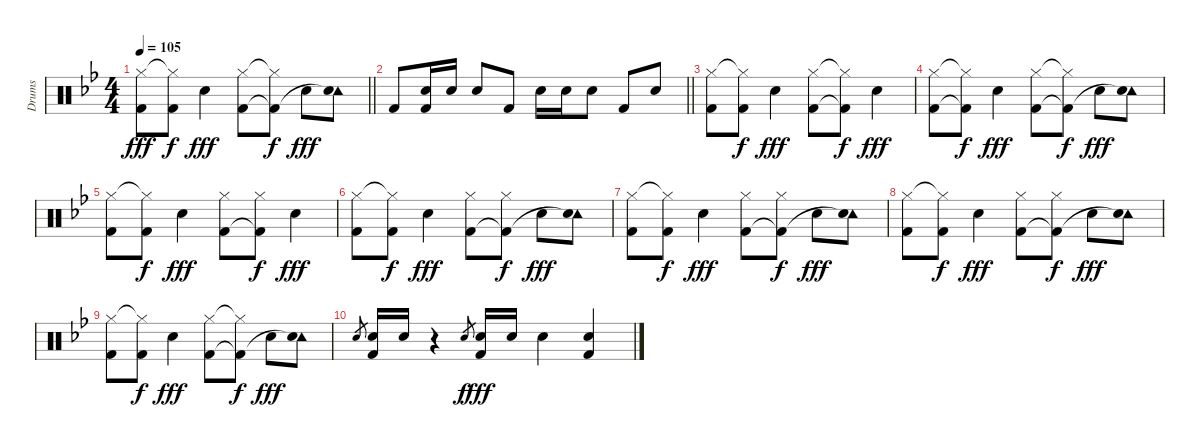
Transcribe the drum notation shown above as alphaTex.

\track ("Drums" "Drums") {instrument percussion}
\staff {score}
\articulation defaults
\ts (4 4)
\tempo 105
\clef neutral
\barLineRight lightlight
\ks bb
("Hi-Hat (closed)" "Kick (hit) 2").8{dy fff} ("Hi-Hat (closed)"{t} "Kick (hit) 2").8{dy f} "Snare (hit) 2".4{dy fff} ("Hi-Hat (closed)" "Kick (hit) 2").8 ("Hi-Hat (closed)"{t} "Kick (hit) 2"{t}).8{dy f} "Snare (hit) 2".8{dy fff} ("Tambourine (hit)" "Snare (hit)"{t}).8 |
\barLineRight lightlight "Kick (hit) 2".8
("Snare (hit) 2" "Kick (hit) 2").16 "Snare (hit) 2".16 "Snare (hit) 2".8 "Kick (hit) 2".8 "Snare (hit) 2".16 "Snare (hit) 2".16 "Snare (hit) 2".8 "Kick (hit) 2".8 "Snare (hit) 2".8 |
("Hi-Hat (closed)" "Kick (hit) 2").8 ("Hi-Hat (closed)"{t} "Kick (hit) 2").8{dy f} "Snare (hit) 2".4{dy fff} ("Hi-Hat (closed)" "Kick (hit) 2").8 ("Hi-Hat (closed)"{t} "Kick (hit) 2"{t}).8{dy f} "Snare (hit) 2".4{dy fff} |
("Hi-Hat (closed)" "Kick (hit) 2").8 ("Hi-Hat (closed)"{t} "Kick (hit) 2"{t}).8{dy f} "Snare (hit) 2".4{dy fff} ("Hi-Hat (closed)" "Kick (hit) 2").8 ("Hi-Hat (closed)"{t} "Kick (hit) 2"{t}).8{dy f} "Snare (hit) 2".8{dy fff} ("Tambourine (hit)" "Snare (hit)"{t}).8 |
("Hi-Hat (closed)" "Kick (hit) 2").8 ("Hi-Hat (closed)"{t} "Kick (hit) 2").8{dy f} "Snare (hit) 2".4{dy fff} ("Hi-Hat (closed)" "Kick (hit) 2").8 ("Hi-Hat (closed)" "Kick (hit) 2"{t}).8{dy f} "Snare (hit) 2".4{dy fff} |
("Hi-Hat (closed)" "Kick (hit) 2").8 ("Hi-Hat (closed)"{t} "Kick (hit) 2").8{dy f} "Snare (hit) 2".4{dy fff} ("Hi-Hat (closed)" "Kick (hit) 2").8 ("Hi-Hat (closed)" "Kick (hit) 2"{t}).8{dy f} "Snare (hit) 2".8{dy fff} ("Tambourine (hit)" "Snare (hit)"{t}).8 |
("Hi-Hat (closed)" "Kick (hit) 2").8 ("Hi-Hat (closed)"{t} "Kick (hit) 2").8{dy f} "Snare (hit) 2".4{dy fff} ("Hi-Hat (closed)" "Kick (hit) 2").8 ("Hi-Hat (closed)" "Kick (hit) 2"{t}).8{dy f} "Snare (hit) 2".8{dy fff} ("Tambourine (hit)" "Snare (hit)"{t}).8 |
("Hi-Hat (closed)" "Kick (hit) 2").8 ("Hi-Hat (closed)"{t} "Kick (hit) 2").8{dy f} "Snare (hit) 2".4{dy fff} ("Hi-Hat (closed)" "Kick (hit) 2").8 ("Hi-Hat (closed)" "Kick (hit) 2"{t}).8{dy f} "Snare (hit) 2".8{dy fff} ("Tambourine (hit)" "Snare (hit)"{t}).8 |
("Hi-Hat (closed)" "Kick (hit) 2").8 ("Hi-Hat (closed)"{t} "Kick (hit) 2").8{dy f} "Snare (hit) 2".4{dy fff} ("Hi-Hat (closed)" "Kick (hit) 2").8 ("Hi-Hat (closed)"{t} "Kick (hit) 2"{t}).8{dy f} "Snare (hit) 2".8{dy fff} ("Tambourine (hit)" "Snare (hit)"{t}).8 |
"Snare (hit) 2".8{gr} ("Snare (hit) 2" "Kick (hit) 2").16 "Snare (hit) 2".16 r.4 "Snare (hit) 2".8{gr dy f} ("Snare (hit) 2" "Kick (hit) 2").16{dy fff} "Snare (hit) 2".16 "Snare (hit) 2".4 ("Snare (hit) 2" "Kick (hit) 2").4
